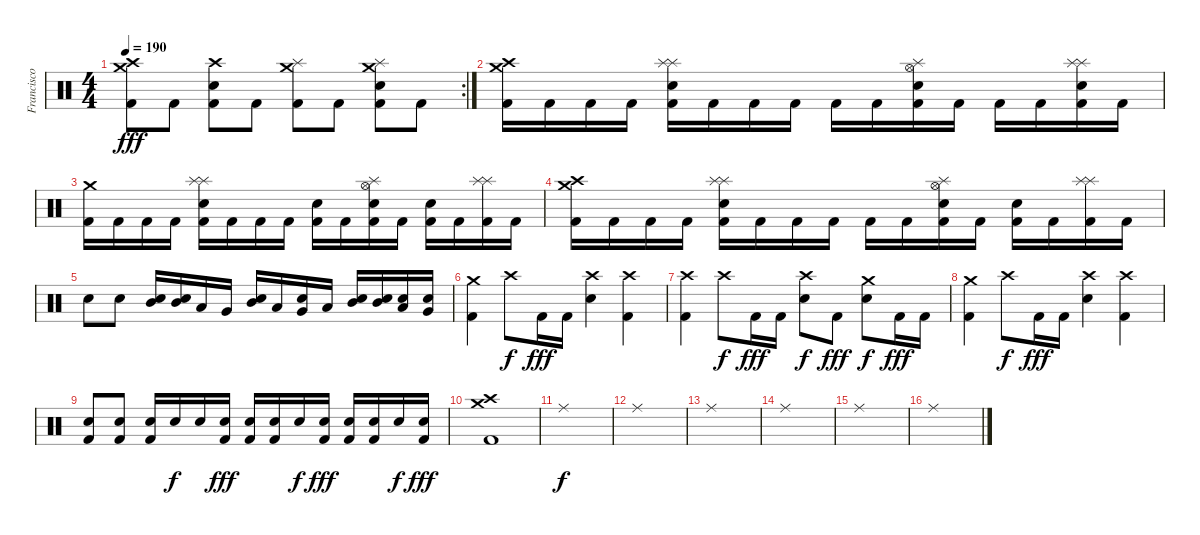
\track ("Francisco Izquierdo (Percusión)" "Francisco ") {instrument percussion}
\staff {score}
\articulation defaults
\rc 2
\ts (4 4)
\tempo 190
\clef neutral
\ks c
("Crash high (hit)" "Crash medium (hit)" "Kick (hit) 2").8{dy fff} "Kick (hit) 2".8 ("Crash high (hit)" "Electric Snare (hit)" "Kick (hit) 2").8 "Kick (hit) 2".8 ("Crash medium (hit)" "Splash (hit)" "Kick (hit) 2").8 "Kick (hit) 2".8 ("Crash medium (hit)" "Splash (hit)" "Electric Snare (hit)" "Kick (hit) 2").8 "Kick (hit) 2".8 |
("Crash medium (hit)" "Crash high (hit)" "Kick (hit) 2").16 "Kick (hit) 2".16 "Kick (hit) 2".16 "Kick (hit) 2".16 ("Splash (hit)" "Splash (hit)" "Electric Snare (hit)" "Kick (hit) 2").16 "Kick (hit) 2".16 "Kick (hit) 2".16 "Kick (hit) 2".16 "Kick (hit) 2".16 "Kick (hit) 2".16 ("Splash (hit)" "Hi-Hat (open)" "Electric Snare (hit)" "Kick (hit) 2").16 "Kick (hit) 2".16 "Kick (hit) 2".16 "Kick (hit) 2".16 ("Splash (hit)" "Splash (hit)" "Electric Snare (hit)" "Kick (hit) 2").16 "Kick (hit) 2".16 |
("Crash medium (hit)" "Kick (hit) 2").16 "Kick (hit) 2".16 "Kick (hit) 2".16 "Kick (hit) 2".16 ("Splash (hit)" "Splash (hit)" "Electric Snare (hit)" "Kick (hit) 2").16 "Kick (hit) 2".16 "Kick (hit) 2".16 "Kick (hit) 2".16 ("Electric Snare (hit)" "Kick (hit) 2").16 "Kick (hit) 2".16 ("Splash (hit)" "Hi-Hat (open)" "Electric Snare (hit)" "Kick (hit) 2").16 "Kick (hit) 2".16 ("Electric Snare (hit)" "Kick (hit) 2").16 "Kick (hit) 2".16 ("Splash (hit)" "Splash (hit)" "Kick (hit) 2").16 "Kick (hit) 2".16 |
("Crash medium (hit)" "Crash high (hit)" "Kick (hit) 2").16 "Kick (hit) 2".16 "Kick (hit) 2".16 "Kick (hit) 2".16 ("Splash (hit)" "Splash (hit)" "Electric Snare (hit)" "Kick (hit) 2").16 "Kick (hit) 2".16 "Kick (hit) 2".16 "Kick (hit) 2".16 "Kick (hit) 2".16 "Kick (hit) 2".16 ("Splash (hit)" "Hi-Hat (open)" "Electric Snare (hit)" "Kick (hit) 2").16 "Kick (hit) 2".16 ("Electric Snare (hit)" "Kick (hit) 2").16 "Kick (hit) 2".16 ("Splash (hit)" "Splash (hit)" "Kick (hit) 2").16 "Kick (hit) 2".16 |
"Electric Snare (hit)".8 "Electric Snare (hit)".8 ("Mid Tom (hit)" "Electric Snare (hit)").16 ("Mid Tom (hit)" "Electric Snare (hit)").16 "Low Tom (hit)".16 "Very Low Tom (hit)".16 ("Electric Snare (hit)" "Mid Tom (hit)").16 "Low Tom (hit)".16 ("Electric Snare (hit)" "Very Low Tom (hit)").16 "Low Tom (hit)".16 ("Mid Tom (hit)" "Electric Snare (hit)").16 ("Mid Tom (hit)" "Electric Snare (hit)").16 ("Low Tom (hit)" "Electric Snare (hit)").16 ("Very Low Tom (hit)" "Electric Snare (hit)").16 |
("Crash medium (hit)" "Kick (hit) 2").4 "Crash high (hit)".8{dy f} "Kick (hit) 2".16{dy fff} "Kick (hit) 2".16 ("Crash high (hit)" "Electric Snare (hit)").4 ("Crash high (hit)" "Kick (hit) 2").4 |
("Crash high (hit)" "Kick (hit) 2").4 "Crash high (hit)".8{dy f} "Kick (hit) 2".16{dy fff} "Kick (hit) 2".16 ("Crash high (hit)" "Electric Snare (hit)").8{dy f} "Kick (hit) 2".8{dy fff} ("Crash medium (hit)" "Electric Snare (hit)").8{dy f} "Kick (hit) 2".16{dy fff} "Kick (hit) 2".16 |
("Crash medium (hit)" "Kick (hit) 2").4 "Crash high (hit)".8{dy f} "Kick (hit) 2".16{dy fff} "Kick (hit) 2".16 ("Crash high (hit)" "Electric Snare (hit)").4 ("Crash high (hit)" "Kick (hit) 2").4 |
("Electric Snare (hit)" "Kick (hit) 2").8 ("Electric Snare (hit)" "Kick (hit) 2").8 ("Electric Snare (hit)" "Kick (hit) 2").16 "Electric Snare (hit)".16{dy f} "Electric Snare (hit)".16 ("Electric Snare (hit)" "Kick (hit) 2").16{dy fff} ("Electric Snare (hit)" "Kick (hit) 2").16 ("Electric Snare (hit)" "Kick (hit) 2").16 "Electric Snare (hit)".16{dy f} ("Electric Snare (hit)" "Kick (hit) 2").16{dy fff} ("Electric Snare (hit)" "Kick (hit) 2").16 ("Electric Snare (hit)" "Kick (hit) 2").16 "Electric Snare (hit)".16{dy f} ("Electric Snare (hit)" "Kick (hit) 2").16{dy fff} |
("Crash high (hit)" "Crash medium (hit)" "Kick (hit) 2").1 |
"Ride (middle)".1{dy f} |
"Ride (middle)".1 |
"Ride (middle)".1 |
"Ride (middle)".1 |
"Ride (middle)".1 |
"Ride (middle)".1
